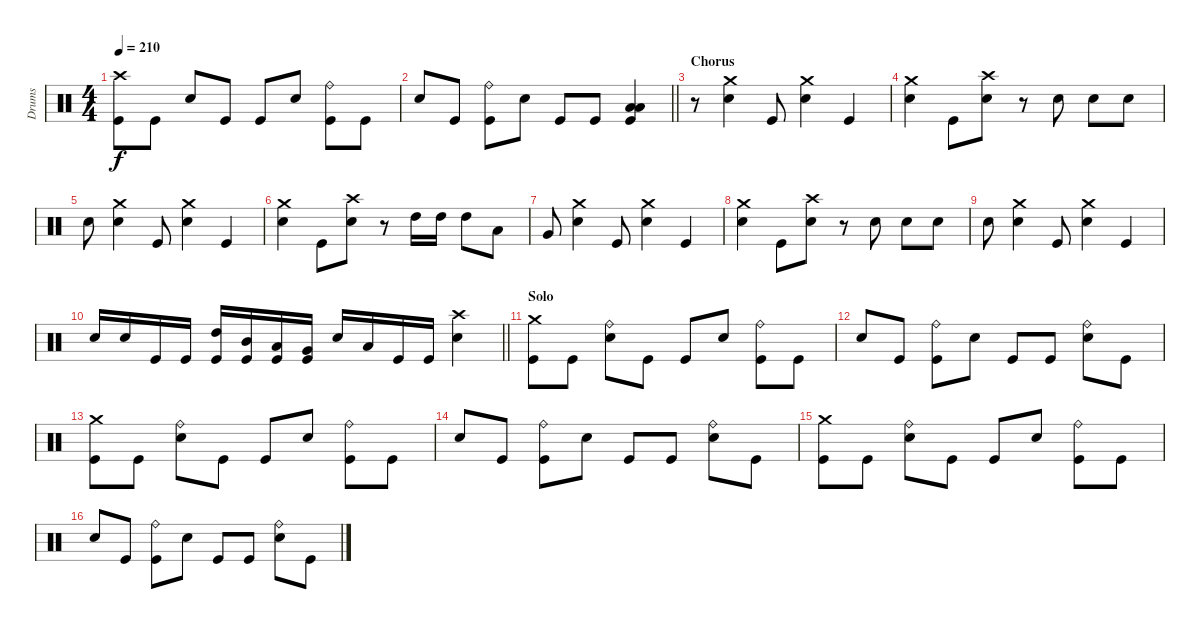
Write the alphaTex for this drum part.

\track ("Drums" "Drums") {instrument percussion}
\staff {score}
\articulation defaults
\ts (4 4)
\tempo 210
\clef neutral
\ks c
("Crash high (hit)" "Kick (hit)").8{dy f} "Kick (hit)".8 "Snare (hit) 2".8 "Kick (hit)".8 "Kick (hit)".8 "Snare (hit) 2".8 ("Ride (bell)" "Kick (hit)").8 "Kick (hit)".8 |
\barLineRight lightlight "Snare (hit) 2".8 "Kick (hit)".8
("Ride (bell)" "Kick (hit)").8 "Snare (hit) 2".8 "Kick (hit)".8 "Kick (hit)".8 ("Low Tom (hit)" "Low Floor Tom (hit)" "Kick (hit)").4 |
\section ("" "Chorus")
r.8 ("Crash medium (hit)" "Snare (hit) 2").4 "Kick (hit)".8 ("Crash medium (hit)" "Snare (hit) 2").4 "Kick (hit)".4 |
("Crash medium (hit)" "Snare (hit) 2").4 "Kick (hit)".8 ("Crash high (hit)" "Snare (hit) 2").8 r.8 "Snare (hit) 2".8 "Snare (hit) 2".8 "Snare (hit) 2".8 |
"Snare (hit) 2".8 ("Crash medium (hit)" "Snare (hit) 2").4 "Kick (hit)".8 ("Crash medium (hit)" "Snare (hit) 2").4 "Kick (hit)".4 |
("Crash medium (hit)" "Snare (hit) 2").4 "Kick (hit)".8 ("Crash high (hit)" "Snare (hit) 2").8 r.8 "High Tom (hit)".16 "High Tom (hit)".16 "High Tom (hit)".8 "Low Tom (hit)".8 |
"Very Low Tom (hit)".8 ("Crash medium (hit)" "Snare (hit) 2").4 "Kick (hit)".8 ("Crash medium (hit)" "Snare (hit) 2").4 "Kick (hit)".4 |
("Crash medium (hit)" "Snare (hit) 2").4 "Kick (hit)".8 ("Crash high (hit)" "Snare (hit) 2").8 r.8 "Snare (hit) 2".8 "Snare (hit) 2".8 "Snare (hit) 2".8 |
"Snare (hit) 2".8 ("Crash medium (hit)" "Snare (hit) 2").4 "Kick (hit)".8 ("Crash medium (hit)" "Snare (hit) 2").4 "Kick (hit)".4 |
\barLineRight lightlight "Snare (hit) 2".16 "Snare (hit) 2".16 "Kick (hit)".16 "Kick (hit)".16
("High Tom (hit)" "Kick (hit)").16 ("Mid Tom (hit)" "Kick (hit)").16 ("Low Tom (hit)" "Kick (hit)").16 ("Very Low Tom (hit)" "Kick (hit)").16 "Snare (hit) 2".16 "Low Floor Tom (hit)".16 "Kick (hit)".16 "Kick (hit)".16 ("Crash high (hit)" "Snare (hit) 2").4 |
\section ("" "Solo")
("Crash medium (hit)" "Kick (hit)").8 "Kick (hit)".8 ("Ride (bell)" "Snare (hit) 2").8 "Kick (hit)".8 "Kick (hit)".8 "Snare (hit) 2".8 ("Ride (bell)" "Kick (hit)").8 "Kick (hit)".8 |
"Snare (hit) 2".8 "Kick (hit)".8 ("Ride (bell)" "Kick (hit)").8 "Snare (hit) 2".8 "Kick (hit)".8 "Kick (hit)".8 ("Ride (bell)" "Snare (hit) 2").8 "Kick (hit)".8 |
("Crash medium (hit)" "Kick (hit)").8 "Kick (hit)".8 ("Ride (bell)" "Snare (hit) 2").8 "Kick (hit)".8 "Kick (hit)".8 "Snare (hit) 2".8 ("Ride (bell)" "Kick (hit)").8 "Kick (hit)".8 |
"Snare (hit) 2".8 "Kick (hit)".8 ("Ride (bell)" "Kick (hit)").8 "Snare (hit) 2".8 "Kick (hit)".8 "Kick (hit)".8 ("Ride (bell)" "Snare (hit) 2").8 "Kick (hit)".8 |
("Crash medium (hit)" "Kick (hit)").8 "Kick (hit)".8 ("Ride (bell)" "Snare (hit) 2").8 "Kick (hit)".8 "Kick (hit)".8 "Snare (hit) 2".8 ("Ride (bell)" "Kick (hit)").8 "Kick (hit)".8 |
"Snare (hit) 2".8 "Kick (hit)".8 ("Ride (bell)" "Kick (hit)").8 "Snare (hit) 2".8 "Kick (hit)".8 "Kick (hit)".8 ("Ride (bell)" "Snare (hit) 2").8 "Kick (hit)".8
